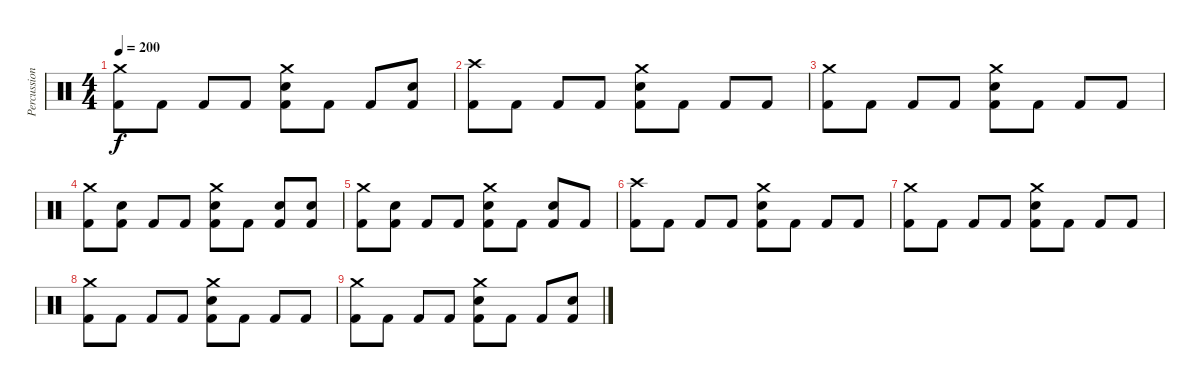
\track ("Percussion" "Percussion") {instrument percussion}
\staff {score}
\articulation defaults
\ts (4 4)
\tempo 200
\clef neutral
\ks c
("Crash medium (hit)" "Kick (hit) 2").8{dy f} "Kick (hit) 2".8 "Kick (hit) 2".8 "Kick (hit) 2".8 ("Crash medium (hit)" "Electric Snare (hit)" "Kick (hit) 2").8 "Kick (hit) 2".8 "Kick (hit) 2".8 ("Electric Snare (hit)" "Kick (hit) 2").8 |
("Crash high (hit)" "Kick (hit) 2").8 "Kick (hit) 2".8 "Kick (hit) 2".8 "Kick (hit) 2".8 ("Crash medium (hit)" "Electric Snare (hit)" "Kick (hit) 2").8 "Kick (hit) 2".8 "Kick (hit) 2".8 "Kick (hit) 2".8 |
("Crash medium (hit)" "Kick (hit) 2").8 "Kick (hit) 2".8 "Kick (hit) 2".8 "Kick (hit) 2".8 ("Crash medium (hit)" "Electric Snare (hit)" "Kick (hit) 2").8 "Kick (hit) 2".8 "Kick (hit) 2".8 "Kick (hit) 2".8 |
("Crash medium (hit)" "Kick (hit) 2").8 ("Electric Snare (hit)" "Kick (hit) 2").8 "Kick (hit) 2".8 "Kick (hit) 2".8 ("Crash medium (hit)" "Electric Snare (hit)" "Kick (hit) 2").8 "Kick (hit) 2".8 ("Electric Snare (hit)" "Kick (hit) 2").8 ("Electric Snare (hit)" "Kick (hit) 2").8 |
("Crash medium (hit)" "Kick (hit) 2").8 ("Electric Snare (hit)" "Kick (hit) 2").8 "Kick (hit) 2".8 "Kick (hit) 2".8 ("Crash medium (hit)" "Electric Snare (hit)" "Kick (hit) 2").8 "Kick (hit) 2".8 ("Electric Snare (hit)" "Kick (hit) 2").8 "Kick (hit) 2".8 |
("Crash high (hit)" "Kick (hit) 2").8 "Kick (hit) 2".8 "Kick (hit) 2".8 "Kick (hit) 2".8 ("Crash medium (hit)" "Electric Snare (hit)" "Kick (hit) 2").8 "Kick (hit) 2".8 "Kick (hit) 2".8 "Kick (hit) 2".8 |
("Crash medium (hit)" "Kick (hit) 2").8 "Kick (hit) 2".8 "Kick (hit) 2".8 "Kick (hit) 2".8 ("Crash medium (hit)" "Electric Snare (hit)" "Kick (hit) 2").8 "Kick (hit) 2".8 "Kick (hit) 2".8 "Kick (hit) 2".8 |
("Crash medium (hit)" "Kick (hit) 2").8 "Kick (hit) 2".8 "Kick (hit) 2".8 "Kick (hit) 2".8 ("Crash medium (hit)" "Electric Snare (hit)" "Kick (hit) 2").8 "Kick (hit) 2".8 "Kick (hit) 2".8 "Kick (hit) 2".8 |
("Crash medium (hit)" "Kick (hit) 2").8 "Kick (hit) 2".8 "Kick (hit) 2".8 "Kick (hit) 2".8 ("Crash medium (hit)" "Electric Snare (hit)" "Kick (hit) 2").8 "Kick (hit) 2".8 "Kick (hit) 2".8 ("Electric Snare (hit)" "Kick (hit) 2").8
